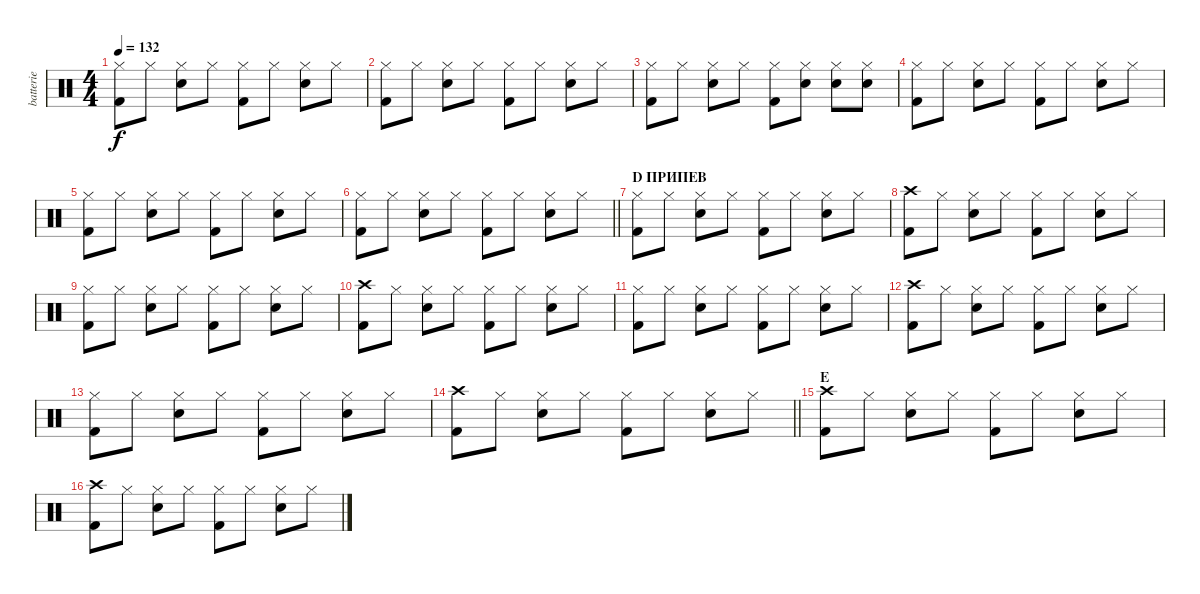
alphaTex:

\track ("batterie" "batterie") {instrument percussion}
\staff {score}
\articulation defaults
\ts (4 4)
\tempo 132
\clef neutral
\ks c
("Hi-Hat (closed)" "Kick (hit) 2").8{dy f} "Hi-Hat (closed)".8 ("Hi-Hat (closed)" "Electric Snare (hit)").8 "Hi-Hat (closed)".8 ("Hi-Hat (closed)" "Kick (hit) 2").8 "Hi-Hat (closed)".8 ("Hi-Hat (closed)" "Electric Snare (hit)").8 "Hi-Hat (closed)".8 |
("Hi-Hat (closed)" "Kick (hit) 2").8 "Hi-Hat (closed)".8 ("Hi-Hat (closed)" "Electric Snare (hit)").8 "Hi-Hat (closed)".8 ("Hi-Hat (closed)" "Kick (hit) 2").8 "Hi-Hat (closed)".8 ("Hi-Hat (closed)" "Electric Snare (hit)").8 "Hi-Hat (closed)".8 |
("Hi-Hat (closed)" "Kick (hit) 2").8 "Hi-Hat (closed)".8 ("Hi-Hat (closed)" "Electric Snare (hit)").8 "Hi-Hat (closed)".8 ("Hi-Hat (closed)" "Kick (hit) 2").8 ("Hi-Hat (closed)" "Electric Snare (hit)").8 ("Hi-Hat (closed)" "Electric Snare (hit)").8 ("Hi-Hat (closed)" "Electric Snare (hit)").8 |
("Hi-Hat (closed)" "Kick (hit) 2").8 "Hi-Hat (closed)".8 ("Hi-Hat (closed)" "Electric Snare (hit)").8 "Hi-Hat (closed)".8 ("Hi-Hat (closed)" "Kick (hit) 2").8 "Hi-Hat (closed)".8 ("Hi-Hat (closed)" "Electric Snare (hit)").8 "Hi-Hat (closed)".8 |
("Hi-Hat (closed)" "Kick (hit) 2").8 "Hi-Hat (closed)".8 ("Hi-Hat (closed)" "Electric Snare (hit)").8 "Hi-Hat (closed)".8 ("Hi-Hat (closed)" "Kick (hit) 2").8 "Hi-Hat (closed)".8 ("Hi-Hat (closed)" "Electric Snare (hit)").8 "Hi-Hat (closed)".8 |
\barLineRight lightlight
("Hi-Hat (closed)" "Kick (hit) 2").8 "Hi-Hat (closed)".8 ("Hi-Hat (closed)" "Electric Snare (hit)").8 "Hi-Hat (closed)".8 ("Hi-Hat (closed)" "Kick (hit) 2").8 "Hi-Hat (closed)".8 ("Hi-Hat (closed)" "Electric Snare (hit)").8 "Hi-Hat (closed)".8 |
\section ("" "D ПРИПЕВ")
("Hi-Hat (closed)" "Kick (hit) 2").8 "Hi-Hat (closed)".8 ("Hi-Hat (closed)" "Electric Snare (hit)").8 "Hi-Hat (closed)".8 ("Hi-Hat (closed)" "Kick (hit) 2").8 "Hi-Hat (closed)".8 ("Hi-Hat (closed)" "Electric Snare (hit)").8 "Hi-Hat (closed)".8 |
("Crash high (hit)" "Kick (hit) 2").8 "Hi-Hat (closed)".8 ("Hi-Hat (closed)" "Electric Snare (hit)").8 "Hi-Hat (closed)".8 ("Hi-Hat (closed)" "Kick (hit) 2").8 "Hi-Hat (closed)".8 ("Hi-Hat (closed)" "Electric Snare (hit)").8 "Hi-Hat (closed)".8 |
("Hi-Hat (closed)" "Kick (hit) 2").8 "Hi-Hat (closed)".8 ("Hi-Hat (closed)" "Electric Snare (hit)").8 "Hi-Hat (closed)".8 ("Hi-Hat (closed)" "Kick (hit) 2").8 "Hi-Hat (closed)".8 ("Hi-Hat (closed)" "Electric Snare (hit)").8 "Hi-Hat (closed)".8 |
("Crash high (hit)" "Kick (hit) 2").8 "Hi-Hat (closed)".8 ("Hi-Hat (closed)" "Electric Snare (hit)").8 "Hi-Hat (closed)".8 ("Hi-Hat (closed)" "Kick (hit) 2").8 "Hi-Hat (closed)".8 ("Hi-Hat (closed)" "Electric Snare (hit)").8 "Hi-Hat (closed)".8 |
("Hi-Hat (closed)" "Kick (hit) 2").8 "Hi-Hat (closed)".8 ("Hi-Hat (closed)" "Electric Snare (hit)").8 "Hi-Hat (closed)".8 ("Hi-Hat (closed)" "Kick (hit) 2").8 "Hi-Hat (closed)".8 ("Hi-Hat (closed)" "Electric Snare (hit)").8 "Hi-Hat (closed)".8 |
("Crash high (hit)" "Kick (hit) 2").8 "Hi-Hat (closed)".8 ("Hi-Hat (closed)" "Electric Snare (hit)").8 "Hi-Hat (closed)".8 ("Hi-Hat (closed)" "Kick (hit) 2").8 "Hi-Hat (closed)".8 ("Hi-Hat (closed)" "Electric Snare (hit)").8 "Hi-Hat (closed)".8 |
("Hi-Hat (closed)" "Kick (hit) 2").8 "Hi-Hat (closed)".8 ("Hi-Hat (closed)" "Electric Snare (hit)").8 "Hi-Hat (closed)".8 ("Hi-Hat (closed)" "Kick (hit) 2").8 "Hi-Hat (closed)".8 ("Hi-Hat (closed)" "Electric Snare (hit)").8 "Hi-Hat (closed)".8 |
\barLineRight lightlight
("Crash high (hit)" "Kick (hit) 2").8 "Hi-Hat (closed)".8 ("Hi-Hat (closed)" "Electric Snare (hit)").8 "Hi-Hat (closed)".8 ("Hi-Hat (closed)" "Kick (hit) 2").8 "Hi-Hat (closed)".8 ("Hi-Hat (closed)" "Electric Snare (hit)").8 "Hi-Hat (closed)".8 |
\section ("" "E")
("Crash high (hit)" "Kick (hit) 2").8 "Hi-Hat (closed)".8 ("Hi-Hat (closed)" "Electric Snare (hit)").8 "Hi-Hat (closed)".8 ("Hi-Hat (closed)" "Kick (hit) 2").8 "Hi-Hat (closed)".8 ("Hi-Hat (closed)" "Electric Snare (hit)").8 "Hi-Hat (closed)".8 |
("Crash high (hit)" "Kick (hit) 2").8 "Hi-Hat (closed)".8 ("Hi-Hat (closed)" "Electric Snare (hit)").8 "Hi-Hat (closed)".8 ("Hi-Hat (closed)" "Kick (hit) 2").8 "Hi-Hat (closed)".8 ("Hi-Hat (closed)" "Electric Snare (hit)").8 "Hi-Hat (closed)".8
